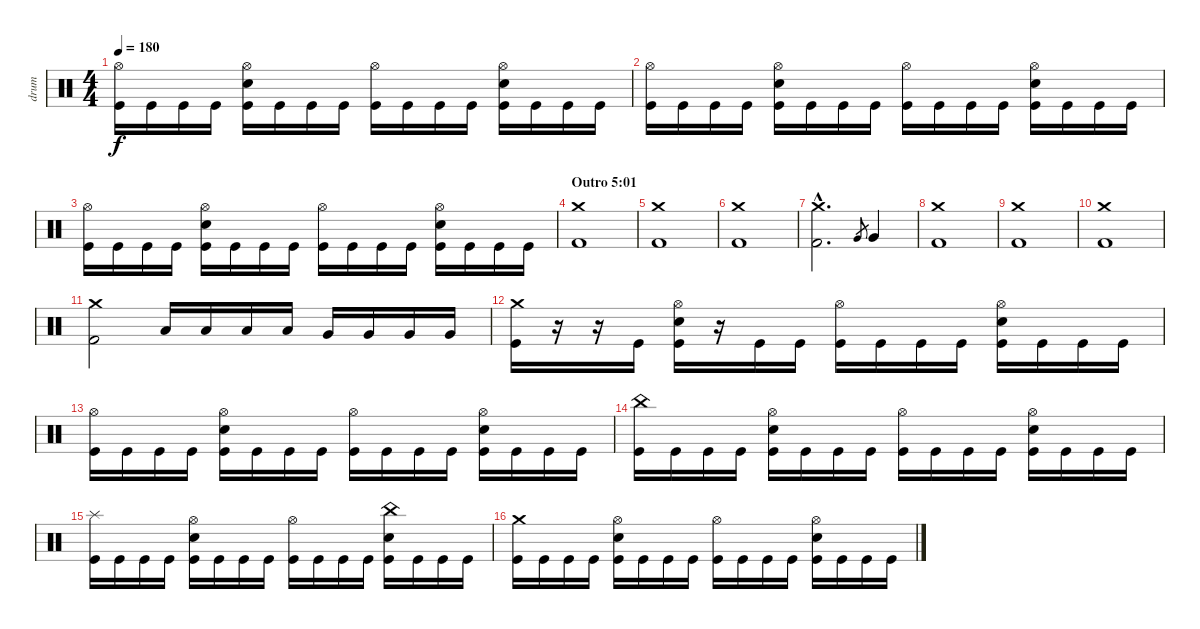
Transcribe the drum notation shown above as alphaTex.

\track ("drum" "drum") {instrument percussion}
\staff {score}
\articulation defaults
\ts (4 4)
\tempo 180
\clef neutral
\ks c
("Hi-Hat (open)" "Kick (hit)").16{dy f} "Kick (hit)".16 "Kick (hit)".16 "Kick (hit)".16 ("Hi-Hat (open)" "Snare (hit) 2" "Kick (hit)").16 "Kick (hit)".16 "Kick (hit)".16 "Kick (hit)".16 ("Hi-Hat (open)" "Kick (hit)").16 "Kick (hit)".16 "Kick (hit)".16 "Kick (hit)".16 ("Hi-Hat (open)" "Snare (hit) 2" "Kick (hit)").16 "Kick (hit)".16 "Kick (hit)".16 "Kick (hit)".16 |
("Hi-Hat (open)" "Kick (hit)").16 "Kick (hit)".16 "Kick (hit)".16 "Kick (hit)".16 ("Hi-Hat (open)" "Snare (hit) 2" "Kick (hit)").16 "Kick (hit)".16 "Kick (hit)".16 "Kick (hit)".16 ("Hi-Hat (open)" "Kick (hit)").16 "Kick (hit)".16 "Kick (hit)".16 "Kick (hit)".16 ("Hi-Hat (open)" "Snare (hit) 2" "Kick (hit)").16 "Kick (hit)".16 "Kick (hit)".16 "Kick (hit)".16 |
("Hi-Hat (open)" "Kick (hit)").16 "Kick (hit)".16 "Kick (hit)".16 "Kick (hit)".16 ("Hi-Hat (open)" "Snare (hit) 2" "Kick (hit)").16 "Kick (hit)".16 "Kick (hit)".16 "Kick (hit)".16 ("Hi-Hat (open)" "Kick (hit)").16 "Kick (hit)".16 "Kick (hit)".16 "Kick (hit)".16 ("Hi-Hat (open)" "Snare (hit) 2" "Kick (hit)").16 "Kick (hit)".16 "Kick (hit)".16 "Kick (hit)".16 |
\section ("" "Outro 5:01")
("Crash medium (hit)" "Kick (hit) 2").1 |
("Crash medium (hit)" "Kick (hit) 2").1 |
("Crash medium (hit)" "Kick (hit) 2").1 |
("Crash medium (hit)"{hac} "Kick (hit) 2"{hac}).2{d} "Very Low Tom (hit)".8{gr} "Very Low Tom (hit)".4 |
("Crash medium (hit)" "Kick (hit) 2").1 |
("Crash medium (hit)" "Kick (hit) 2").1 |
("Crash medium (hit)" "Kick (hit) 2").1 |
("Crash medium (hit)" "Kick (hit) 2").2 "Low Tom (hit)".16 "Low Tom (hit)".16 "Low Tom (hit)".16 "Low Tom (hit)".16 "Very Low Tom (hit)".16 "Very Low Tom (hit)".16 "Very Low Tom (hit)".16 "Very Low Tom (hit)".16 |
("Crash medium (hit)" "Kick (hit)").16 r.16 r.16 "Kick (hit)".16 ("Hi-Hat (open)" "Snare (hit) 2" "Kick (hit)").16 r.16 "Kick (hit)".16 "Kick (hit)".16 ("Hi-Hat (open)" "Kick (hit)").16 "Kick (hit)".16 "Kick (hit)".16 "Kick (hit)".16 ("Hi-Hat (open)" "Snare (hit) 2" "Kick (hit)").16 "Kick (hit)".16 "Kick (hit)".16 "Kick (hit)".16 |
("Hi-Hat (open)" "Kick (hit)").16 "Kick (hit)".16 "Kick (hit)".16 "Kick (hit)".16 ("Hi-Hat (open)" "Snare (hit) 2" "Kick (hit)").16 "Kick (hit)".16 "Kick (hit)".16 "Kick (hit)".16 ("Hi-Hat (open)" "Kick (hit)").16 "Kick (hit)".16 "Kick (hit)".16 "Kick (hit)".16 ("Hi-Hat (open)" "Snare (hit) 2" "Kick (hit)").16 "Kick (hit)".16 "Kick (hit)".16 "Kick (hit)".16 |
("China (hit)" "Kick (hit)").16 "Kick (hit)".16 "Kick (hit)".16 "Kick (hit)".16 ("Hi-Hat (open)" "Snare (hit) 2" "Kick (hit)").16 "Kick (hit)".16 "Kick (hit)".16 "Kick (hit)".16 ("Hi-Hat (open)" "Kick (hit)").16 "Kick (hit)".16 "Kick (hit)".16 "Kick (hit)".16 ("Hi-Hat (open)" "Snare (hit) 2" "Kick (hit)").16 "Kick (hit)".16 "Kick (hit)".16 "Kick (hit)".16 |
("Splash (hit)" "Kick (hit)").16 "Kick (hit)".16 "Kick (hit)".16 "Kick (hit)".16 ("Hi-Hat (open)" "Snare (hit) 2" "Kick (hit)").16 "Kick (hit)".16 "Kick (hit)".16 "Kick (hit)".16 ("Hi-Hat (open)" "Kick (hit)").16 "Kick (hit)".16 "Kick (hit)".16 "Kick (hit)".16 ("China (hit)" "Snare (hit) 2" "Kick (hit)").16 "Kick (hit)".16 "Kick (hit)".16 "Kick (hit)".16 |
("Crash medium (hit)" "Kick (hit)").16 "Kick (hit)".16 "Kick (hit)".16 "Kick (hit)".16 ("Hi-Hat (open)" "Snare (hit) 2" "Kick (hit)").16 "Kick (hit)".16 "Kick (hit)".16 "Kick (hit)".16 ("Hi-Hat (open)" "Kick (hit)").16 "Kick (hit)".16 "Kick (hit)".16 "Kick (hit)".16 ("Hi-Hat (open)" "Snare (hit) 2" "Kick (hit)").16 "Kick (hit)".16 "Kick (hit)".16 "Kick (hit)".16
